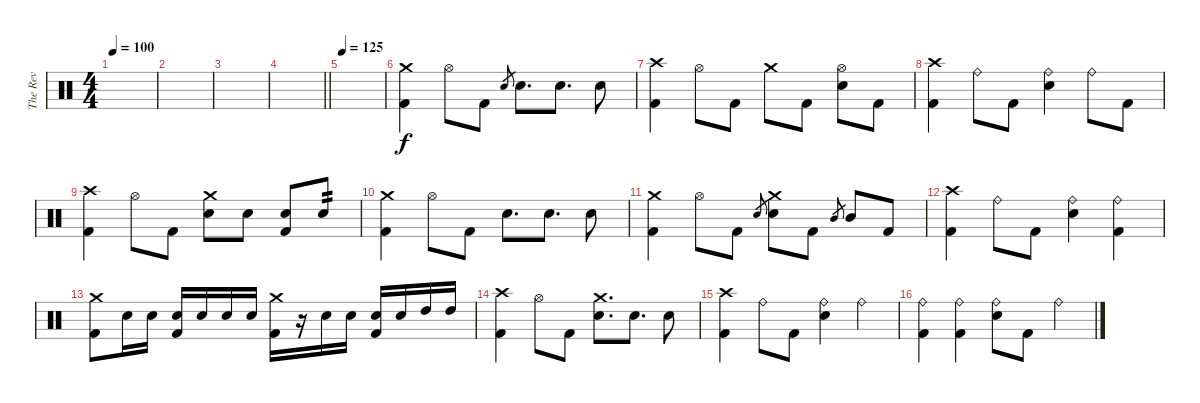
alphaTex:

\track ("The Rev" "The Rev") {instrument percussion}
\staff {score}
\articulation defaults
\ts (4 4)
\tempo 100
\clef neutral
\ks c
|
|
|
\barLineRight lightlight
|
\tempo 125
|
("Crash medium (hit)" "Kick (hit) 2").4 "Hi-Hat (open)".8 "Kick (hit) 2".8 "Electric Snare (hit)".8{gr} "Electric Snare (hit)".8{d} "Electric Snare (hit)".8{d} "Electric Snare (hit)".8 |
("Crash high (hit)" "Kick (hit) 2").4 "Hi-Hat (open)".8 "Kick (hit) 2".8 "Crash medium (hit)".8 "Kick (hit) 2".8 ("Hi-Hat (open)" "Electric Snare (hit)").8 "Kick (hit) 2".8 |
("Crash high (hit)" "Kick (hit) 2").4 "Ride (bell)".8 "Kick (hit) 2".8 ("Ride (bell)" "Electric Snare (hit)").4 "Ride (bell)".8 "Kick (hit) 2".8 |
("Crash high (hit)" "Kick (hit) 2").4 "Hi-Hat (open)".8 "Kick (hit) 2".8 ("Crash medium (hit)" "Electric Snare (hit)").8 "Electric Snare (hit)".8 ("Electric Snare (hit)" "Kick (hit) 2").8 "Electric Snare (hit)".8{tp 2} |
("Crash medium (hit)" "Kick (hit) 2").4 "Hi-Hat (open)".8 "Kick (hit) 2".8 "Electric Snare (hit)".8{d} "Electric Snare (hit)".8{d} "Electric Snare (hit)".8 |
("Crash medium (hit)" "Kick (hit) 2").4 "Hi-Hat (open)".8 "Kick (hit) 2".8 "Electric Snare (hit)".8{gr} ("Crash medium (hit)" "Electric Snare (hit)").8 "Kick (hit) 2".8 "Mid Tom (hit)".8{gr} "Mid Tom (hit)".8 "Kick (hit) 2".8 |
("Crash high (hit)" "Kick (hit) 2").4 "Ride (bell)".8 "Kick (hit) 2".8 ("Ride (bell)" "Electric Snare (hit)").4 ("Ride (bell)" "Kick (hit) 2").4 |
("Crash medium (hit)" "Kick (hit) 2").8 "Electric Snare (hit)".16 "Electric Snare (hit)".16 ("Electric Snare (hit)" "Kick (hit) 2").16 "Electric Snare (hit)".16 "Electric Snare (hit)".16 "Electric Snare (hit)".16 ("Crash medium (hit)" "Kick (hit) 2").16 r.16 "Electric Snare (hit)".16 "Electric Snare (hit)".16 ("Electric Snare (hit)" "Kick (hit) 2").16 "Electric Snare (hit)".16 "High Tom (hit)".16 "High Tom (hit)".16 |
("Crash high (hit)" "Kick (hit) 2").4 "Hi-Hat (open)".8 "Kick (hit) 2".8 ("Crash medium (hit)" "Electric Snare (hit)").8{d} "Electric Snare (hit)".8{d} "Electric Snare (hit)".8 |
("Crash high (hit)" "Kick (hit) 2").4 "Ride (bell)".8 "Kick (hit) 2".8 ("Ride (bell)" "Electric Snare (hit)").4 "Ride (bell)".4 |
("Ride (bell)" "Kick (hit) 2").4 ("Ride (bell)" "Kick (hit) 2").4 ("Ride (bell)" "Electric Snare (hit)").8 "Kick (hit) 2".8 "Ride (bell)".4
